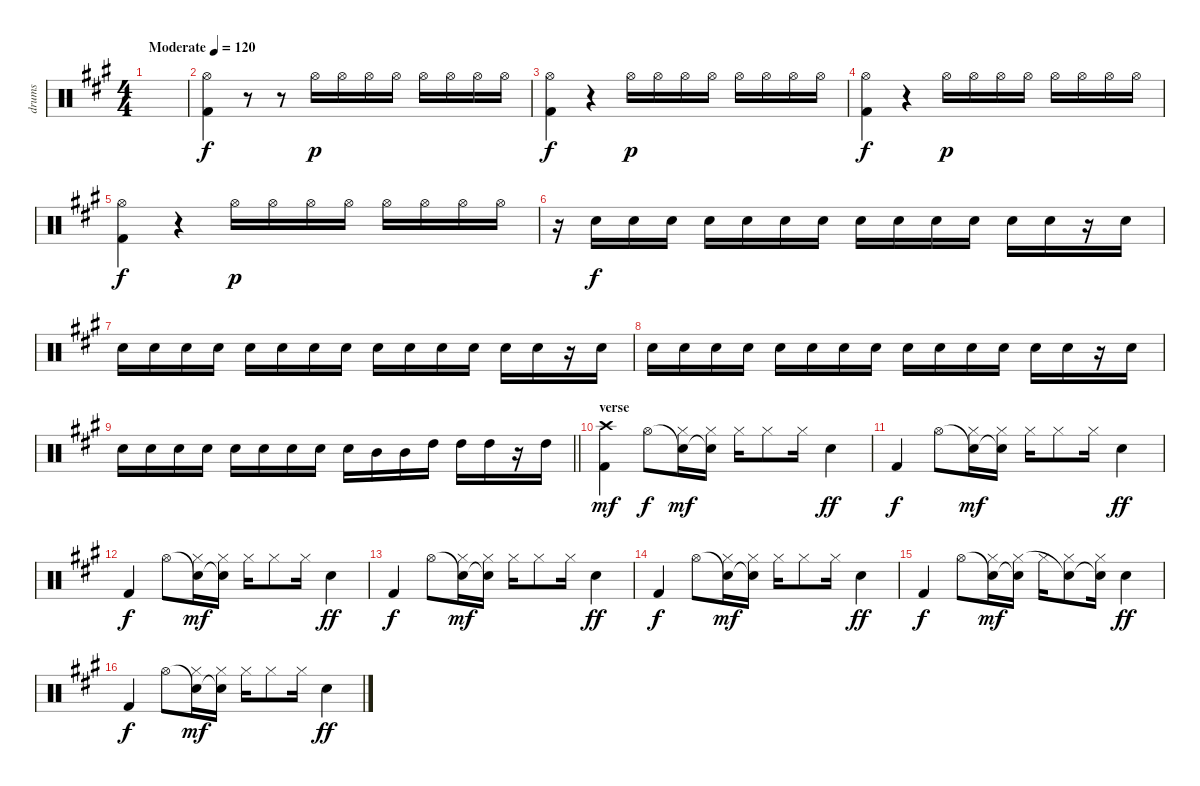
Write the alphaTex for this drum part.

\track ("drums" "drums") {instrument percussion}
\staff {score}
\articulation defaults
\ts (4 4)
\tempo (120 "Moderate")
\clef neutral
\ks a
|
("Hi-Hat (open)" "Kick (hit) 2").4 r.8 r.8 "Hi-Hat (open)".16{dy p} "Hi-Hat (open)".16 "Hi-Hat (open)".16 "Hi-Hat (open)".16 "Hi-Hat (open)".16 "Hi-Hat (open)".16 "Hi-Hat (open)".16 "Hi-Hat (open)".16 |
("Hi-Hat (open)" "Kick (hit) 2").4{dy f} r.4 "Hi-Hat (open)".16{dy p} "Hi-Hat (open)".16 "Hi-Hat (open)".16 "Hi-Hat (open)".16 "Hi-Hat (open)".16 "Hi-Hat (open)".16 "Hi-Hat (open)".16 "Hi-Hat (open)".16 |
("Hi-Hat (open)" "Kick (hit) 2").4{dy f} r.4 "Hi-Hat (open)".16{dy p} "Hi-Hat (open)".16 "Hi-Hat (open)".16 "Hi-Hat (open)".16 "Hi-Hat (open)".16 "Hi-Hat (open)".16 "Hi-Hat (open)".16 "Hi-Hat (open)".16 |
("Hi-Hat (open)" "Kick (hit) 2").4{dy f} r.4 "Hi-Hat (open)".16{dy p} "Hi-Hat (open)".16 "Hi-Hat (open)".16 "Hi-Hat (open)".16 "Hi-Hat (open)".16 "Hi-Hat (open)".16 "Hi-Hat (open)".16 "Hi-Hat (open)".16 |
r.16 "Electric Snare (hit)".16{dy f} "Electric Snare (hit)".16 "Electric Snare (hit)".16 "Electric Snare (hit)".16 "Electric Snare (hit)".16 "Electric Snare (hit)".16 "Electric Snare (hit)".16 "Electric Snare (hit)".16 "Electric Snare (hit)".16 "Electric Snare (hit)".16 "Electric Snare (hit)".16 "Electric Snare (hit)".16 "Electric Snare (hit)".16 r.16 "Electric Snare (hit)".16 |
"Electric Snare (hit)".16 "Electric Snare (hit)".16 "Electric Snare (hit)".16 "Electric Snare (hit)".16 "Electric Snare (hit)".16 "Electric Snare (hit)".16 "Electric Snare (hit)".16 "Electric Snare (hit)".16 "Electric Snare (hit)".16 "Electric Snare (hit)".16 "Electric Snare (hit)".16 "Electric Snare (hit)".16 "Electric Snare (hit)".16 "Electric Snare (hit)".16 r.16 "Electric Snare (hit)".16 |
"Electric Snare (hit)".16 "Electric Snare (hit)".16 "Electric Snare (hit)".16 "Electric Snare (hit)".16 "Electric Snare (hit)".16 "Electric Snare (hit)".16 "Electric Snare (hit)".16 "Electric Snare (hit)".16 "Electric Snare (hit)".16 "Electric Snare (hit)".16 "Electric Snare (hit)".16 "Electric Snare (hit)".16 "Electric Snare (hit)".16 "Electric Snare (hit)".16 r.16 "Electric Snare (hit)".16 |
\barLineRight lightlight "Electric Snare (hit)".16 "Electric Snare (hit)".16 "Electric Snare (hit)".16 "Electric Snare (hit)".16 "Electric Snare (hit)".16 "Electric Snare (hit)".16 "Electric Snare (hit)".16 "Electric Snare (hit)".16 "Electric Snare (hit)".16 "Mid Tom (hit)".16 "Mid Tom (hit)".16 "High Tom (hit)".16 "High Tom (hit)".16 "High Tom (hit)".16
r.16 "High Tom (hit)".16 |
\section ("" "verse")
("Crash high (hit)" "Kick (hit) 2").4{dy mf} "Hi-Hat (open)".8{dy f} ("Snare (hit)"{t} "Hi-Hat (closed)").16{dy mf} ("Snare (hit)"{t} "Hi-Hat (closed)").16 "Hi-Hat (closed)".16 "Hi-Hat (closed)".8 "Hi-Hat (closed)".16 "Electric Snare (hit)".4{dy ff} |
"Kick (hit) 2".4{dy f} "Hi-Hat (open)".8 ("Snare (hit)"{t} "Hi-Hat (closed)").16{dy mf} ("Snare (hit)"{t} "Hi-Hat (closed)").16 "Hi-Hat (closed)".16 "Hi-Hat (closed)".8 "Hi-Hat (closed)".16 "Electric Snare (hit)".4{dy ff} |
"Kick (hit) 2".4{dy f} "Hi-Hat (open)".8 ("Snare (hit)"{t} "Hi-Hat (closed)").16{dy mf} ("Snare (hit)"{t} "Hi-Hat (closed)").16 "Hi-Hat (closed)".16 "Hi-Hat (closed)".8 "Hi-Hat (closed)".16 "Electric Snare (hit)".4{dy ff} |
"Kick (hit) 2".4{dy f} "Hi-Hat (open)".8 ("Snare (hit)"{t} "Hi-Hat (closed)").16{dy mf} ("Snare (hit)"{t} "Hi-Hat (closed)").16 "Hi-Hat (closed)".16 "Hi-Hat (closed)".8 "Hi-Hat (closed)".16 "Electric Snare (hit)".4{dy ff} |
"Kick (hit) 2".4{dy f} "Hi-Hat (open)".8 ("Snare (hit)"{t} "Hi-Hat (closed)").16{dy mf} ("Snare (hit)"{t} "Hi-Hat (closed)").16 "Hi-Hat (closed)".16 "Hi-Hat (closed)".8 "Hi-Hat (closed)".16 "Electric Snare (hit)".4{dy ff} |
"Kick (hit) 2".4{dy f} "Hi-Hat (open)".8 ("Snare (hit)"{t} "Hi-Hat (closed)").16{dy mf} ("Snare (hit)"{t} "Hi-Hat (closed)").16 "Hi-Hat (closed)".16 ("Hi-Hat (closed)" "Snare (hit)"{t}).8 ("Hi-Hat (closed)" "Snare (hit)"{t}).16 "Electric Snare (hit)".4{dy ff} |
"Kick (hit) 2".4{dy f} "Hi-Hat (open)".8 ("Snare (hit)"{t} "Hi-Hat (closed)").16{dy mf} ("Snare (hit)"{t} "Hi-Hat (closed)").16 "Hi-Hat (closed)".16 "Hi-Hat (closed)".8 "Hi-Hat (closed)".16 "Electric Snare (hit)".4{dy ff}
